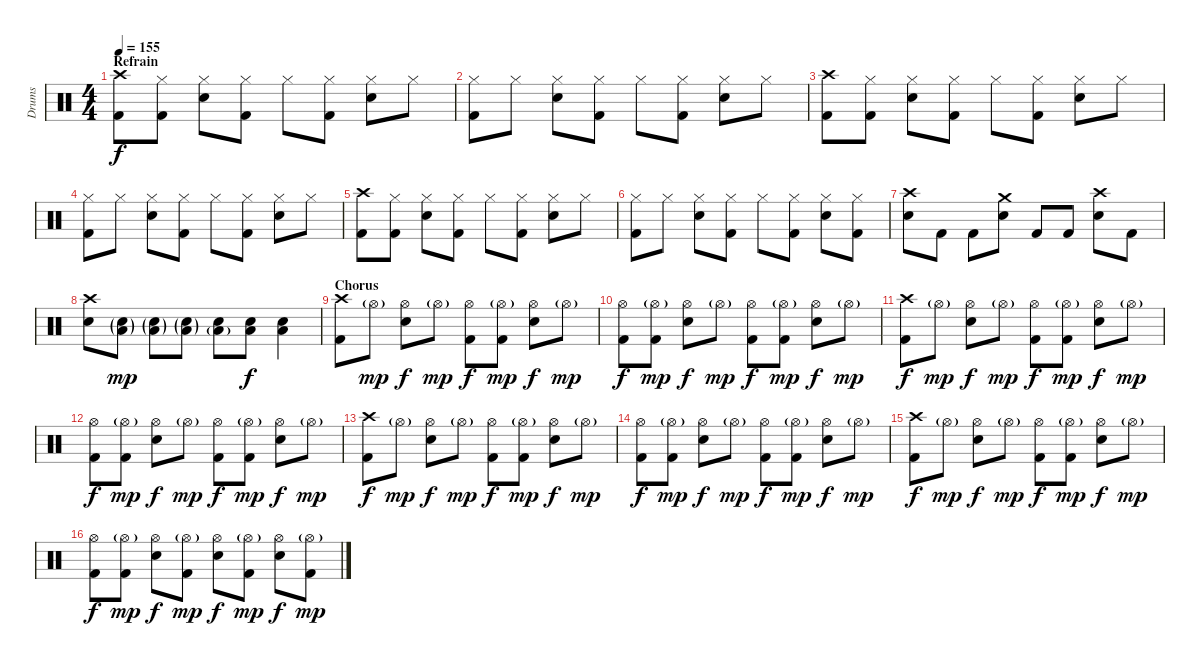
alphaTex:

\track ("Drums" "Drums") {instrument percussion}
\staff {score}
\articulation defaults
\ts (4 4)
\section ("" "Refrain")
\tempo 155
\clef neutral
\ks c
("Crash high (hit)" "Kick (hit) 2").8{dy f} ("Hi-Hat (closed)" "Kick (hit) 2").8 ("Hi-Hat (closed)" "Electric Snare (hit)").8 ("Hi-Hat (closed)" "Kick (hit) 2").8 "Hi-Hat (closed)".8 ("Hi-Hat (closed)" "Kick (hit) 2").8 ("Hi-Hat (closed)" "Electric Snare (hit)").8 "Hi-Hat (closed)".8 |
("Hi-Hat (closed)" "Kick (hit) 2").8 "Hi-Hat (closed)".8 ("Hi-Hat (closed)" "Electric Snare (hit)").8 ("Hi-Hat (closed)" "Kick (hit) 2").8 "Hi-Hat (closed)".8 ("Hi-Hat (closed)" "Kick (hit) 2").8 ("Hi-Hat (closed)" "Electric Snare (hit)").8 "Hi-Hat (closed)".8 |
("Crash high (hit)" "Kick (hit) 2").8 ("Hi-Hat (closed)" "Kick (hit) 2").8 ("Hi-Hat (closed)" "Electric Snare (hit)").8 ("Hi-Hat (closed)" "Kick (hit) 2").8 "Hi-Hat (closed)".8 ("Hi-Hat (closed)" "Kick (hit) 2").8 ("Hi-Hat (closed)" "Electric Snare (hit)").8 "Hi-Hat (closed)".8 |
("Hi-Hat (closed)" "Kick (hit) 2").8 "Hi-Hat (closed)".8 ("Hi-Hat (closed)" "Electric Snare (hit)").8 ("Hi-Hat (closed)" "Kick (hit) 2").8 "Hi-Hat (closed)".8 ("Hi-Hat (closed)" "Kick (hit) 2").8 ("Hi-Hat (closed)" "Electric Snare (hit)").8 "Hi-Hat (closed)".8 |
("Crash high (hit)" "Kick (hit) 2").8 ("Hi-Hat (closed)" "Kick (hit) 2").8 ("Hi-Hat (closed)" "Electric Snare (hit)").8 ("Hi-Hat (closed)" "Kick (hit) 2").8 "Hi-Hat (closed)".8 ("Hi-Hat (closed)" "Kick (hit) 2").8 ("Hi-Hat (closed)" "Electric Snare (hit)").8 "Hi-Hat (closed)".8 |
("Hi-Hat (closed)" "Kick (hit) 2").8 "Hi-Hat (closed)".8 ("Hi-Hat (closed)" "Electric Snare (hit)").8 ("Hi-Hat (closed)" "Kick (hit) 2").8 "Hi-Hat (closed)".8 ("Hi-Hat (closed)" "Kick (hit) 2").8 ("Hi-Hat (closed)" "Electric Snare (hit)").8 ("Hi-Hat (closed)" "Kick (hit) 2").8 |
("Crash high (hit)" "Electric Snare (hit)").8 "Kick (hit) 2".8 "Kick (hit) 2".8 ("Crash medium (hit)" "Electric Snare (hit)").8 "Kick (hit) 2".8 "Kick (hit) 2".8 ("Crash high (hit)" "Electric Snare (hit)").8 "Kick (hit) 2".8 |
("Crash high (hit)" "Electric Snare (hit)").8 ("Low Floor Tom (hit)"{g} "Electric Snare (hit)"{g}).8{dy mp} ("Low Floor Tom (hit)"{g} "Electric Snare (hit)"{g}).8 ("Low Floor Tom (hit)"{g} "Electric Snare (hit)"{g}).8 ("Low Floor Tom (hit)"{g} "Electric Snare (hit)").8 ("Low Floor Tom (hit)" "Electric Snare (hit)").8{dy f} ("Low Floor Tom (hit)" "Electric Snare (hit)").4 |
\section ("" "Chorus")
("Crash high (hit)" "Kick (hit) 2").8 "Hi-Hat (open)"{g}.8{dy mp} ("Hi-Hat (open)" "Electric Snare (hit)").8{dy f} "Hi-Hat (open)"{g}.8{dy mp} ("Hi-Hat (open)" "Kick (hit) 2").8{dy f} ("Hi-Hat (open)"{g} "Kick (hit) 2").8{dy mp} ("Hi-Hat (open)" "Electric Snare (hit)").8{dy f} "Hi-Hat (open)"{g}.8{dy mp} |
("Hi-Hat (open)" "Kick (hit) 2").8{dy f} ("Hi-Hat (open)"{g} "Kick (hit) 2").8{dy mp} ("Hi-Hat (open)" "Electric Snare (hit)").8{dy f} "Hi-Hat (open)"{g}.8{dy mp} ("Hi-Hat (open)" "Kick (hit) 2").8{dy f} ("Hi-Hat (open)"{g} "Kick (hit) 2").8{dy mp} ("Hi-Hat (open)" "Electric Snare (hit)").8{dy f} "Hi-Hat (open)"{g}.8{dy mp} |
("Crash high (hit)" "Kick (hit) 2").8{dy f} "Hi-Hat (open)"{g}.8{dy mp} ("Hi-Hat (open)" "Electric Snare (hit)").8{dy f} "Hi-Hat (open)"{g}.8{dy mp} ("Hi-Hat (open)" "Kick (hit) 2").8{dy f} ("Hi-Hat (open)"{g} "Kick (hit) 2").8{dy mp} ("Hi-Hat (open)" "Electric Snare (hit)").8{dy f} "Hi-Hat (open)"{g}.8{dy mp} |
("Hi-Hat (open)" "Kick (hit) 2").8{dy f} ("Hi-Hat (open)"{g} "Kick (hit) 2").8{dy mp} ("Hi-Hat (open)" "Electric Snare (hit)").8{dy f} "Hi-Hat (open)"{g}.8{dy mp} ("Hi-Hat (open)" "Kick (hit) 2").8{dy f} ("Hi-Hat (open)"{g} "Kick (hit) 2").8{dy mp} ("Hi-Hat (open)" "Electric Snare (hit)").8{dy f} "Hi-Hat (open)"{g}.8{dy mp} |
("Crash high (hit)" "Kick (hit) 2").8{dy f} "Hi-Hat (open)"{g}.8{dy mp} ("Hi-Hat (open)" "Electric Snare (hit)").8{dy f} "Hi-Hat (open)"{g}.8{dy mp} ("Hi-Hat (open)" "Kick (hit) 2").8{dy f} ("Hi-Hat (open)"{g} "Kick (hit) 2").8{dy mp} ("Hi-Hat (open)" "Electric Snare (hit)").8{dy f} "Hi-Hat (open)"{g}.8{dy mp} |
("Hi-Hat (open)" "Kick (hit) 2").8{dy f} ("Hi-Hat (open)"{g} "Kick (hit) 2").8{dy mp} ("Hi-Hat (open)" "Electric Snare (hit)").8{dy f} "Hi-Hat (open)"{g}.8{dy mp} ("Hi-Hat (open)" "Kick (hit) 2").8{dy f} ("Hi-Hat (open)"{g} "Kick (hit) 2").8{dy mp} ("Hi-Hat (open)" "Electric Snare (hit)").8{dy f} "Hi-Hat (open)"{g}.8{dy mp} |
("Crash high (hit)" "Kick (hit) 2").8{dy f} "Hi-Hat (open)"{g}.8{dy mp} ("Hi-Hat (open)" "Electric Snare (hit)").8{dy f} "Hi-Hat (open)"{g}.8{dy mp} ("Hi-Hat (open)" "Kick (hit) 2").8{dy f} ("Hi-Hat (open)"{g} "Kick (hit) 2").8{dy mp} ("Hi-Hat (open)" "Electric Snare (hit)").8{dy f} "Hi-Hat (open)"{g}.8{dy mp} |
("Hi-Hat (open)" "Kick (hit) 2").8{dy f} ("Hi-Hat (open)"{g} "Kick (hit) 2").8{dy mp} ("Hi-Hat (open)" "Electric Snare (hit)").8{dy f} ("Hi-Hat (open)"{g} "Kick (hit) 2").8{dy mp} ("Hi-Hat (open)" "Electric Snare (hit)").8{dy f} ("Hi-Hat (open)"{g} "Kick (hit) 2").8{dy mp} ("Hi-Hat (open)" "Electric Snare (hit)").8{dy f} ("Hi-Hat (open)"{g} "Kick (hit) 2").8{dy mp}
